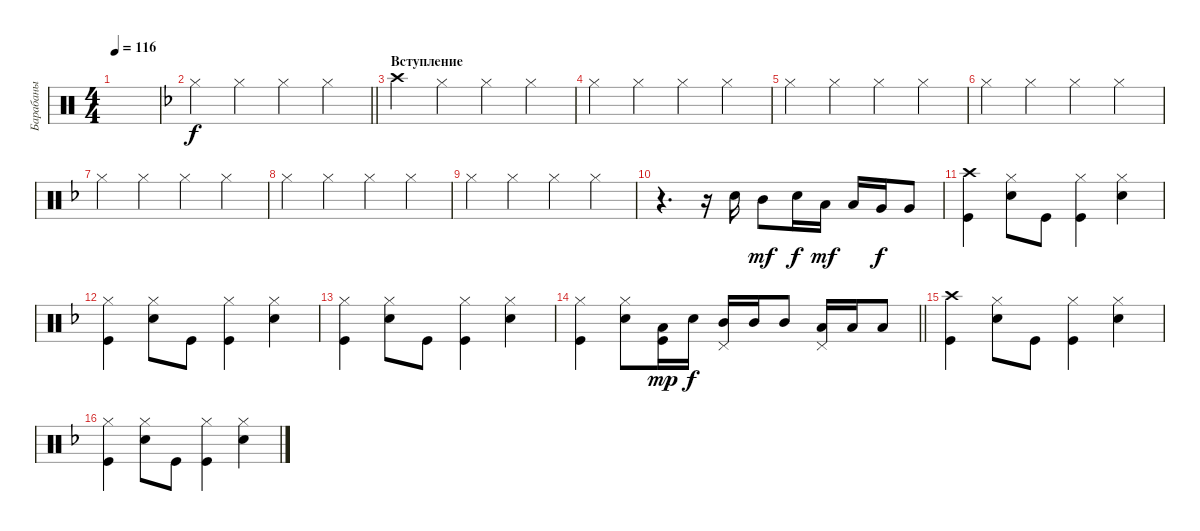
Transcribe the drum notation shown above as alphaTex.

\track ("Барабаны" "Барабаны") {instrument percussion}
\staff {score}
\articulation defaults
\ts (4 4)
\tempo 116
\clef neutral
\ks c
|
\barLineRight lightlight
\ks dminor "Hi-Hat (closed)".4 "Hi-Hat (closed)".4 "Hi-Hat (closed)".4 "Hi-Hat (closed)".4
|
\section ("" "Вступление")
"Crash high (hit)".4 "Hi-Hat (closed)".4 "Hi-Hat (closed)".4 "Hi-Hat (closed)".4 |
"Hi-Hat (closed)".4 "Hi-Hat (closed)".4 "Hi-Hat (closed)".4 "Hi-Hat (closed)".4 |
"Hi-Hat (closed)".4 "Hi-Hat (closed)".4 "Hi-Hat (closed)".4 "Hi-Hat (closed)".4 |
"Hi-Hat (closed)".4 "Hi-Hat (closed)".4 "Hi-Hat (closed)".4 "Hi-Hat (closed)".4 |
"Hi-Hat (closed)".4 "Hi-Hat (closed)".4 "Hi-Hat (closed)".4 "Hi-Hat (closed)".4 |
"Hi-Hat (closed)".4 "Hi-Hat (closed)".4 "Hi-Hat (closed)".4 "Hi-Hat (closed)".4 |
"Hi-Hat (closed)".4 "Hi-Hat (closed)".4 "Hi-Hat (closed)".4 "Hi-Hat (closed)".4 |
r.4{d volume 14} r.16 "Snare (hit) 2".16 "Mid Tom (hit)".8{dy mf} "Snare (hit) 2".16{dy f} "Low Tom (hit)".16{dy mf} "Low Tom (hit)".16 "Very Low Tom (hit)".16{dy f} "Very Low Tom (hit)".8 |
("Kick (hit)" "Crash high (hit)").4 ("Hi-Hat (closed)" "Snare (hit) 2").8 "Kick (hit)".8 ("Hi-Hat (closed)" "Kick (hit)").4 ("Hi-Hat (closed)" "Snare (hit) 2").4 |
("Hi-Hat (closed)" "Kick (hit)").4 ("Hi-Hat (closed)" "Snare (hit) 2").8 "Kick (hit)".8 ("Hi-Hat (closed)" "Kick (hit)").4 ("Hi-Hat (closed)" "Snare (hit) 2").4 |
("Hi-Hat (closed)" "Kick (hit)").4 ("Hi-Hat (closed)" "Snare (hit) 2").8 "Kick (hit)".8 ("Hi-Hat (closed)" "Kick (hit)").4 ("Hi-Hat (closed)" "Snare (hit) 2").4 |
\barLineRight lightlight
("Hi-Hat (closed)" "Kick (hit)").4 ("Hi-Hat (closed)" "Snare (hit) 2").8 ("Low Floor Tom (hit)" "Kick (hit)").16{dy mp} "Snare (hit) 2".16{dy f} ("Mid Tom (hit)" "Pedal Hi-Hat (hit)").16 "Mid Tom (hit)".16 "Mid Tom (hit)".8 ("Pedal Hi-Hat (hit)" "Low Tom (hit)").16 "Low Tom (hit)".16 "Low Tom (hit)".8 |
("Kick (hit)" "Crash high (hit)").4 ("Hi-Hat (closed)" "Snare (hit) 2").8 "Kick (hit)".8 ("Hi-Hat (closed)" "Kick (hit)").4 ("Hi-Hat (closed)" "Snare (hit) 2").4 |
("Hi-Hat (closed)" "Kick (hit)").4 ("Hi-Hat (closed)" "Snare (hit) 2").8 "Kick (hit)".8 ("Hi-Hat (closed)" "Kick (hit)").4 ("Hi-Hat (closed)" "Snare (hit) 2").4
